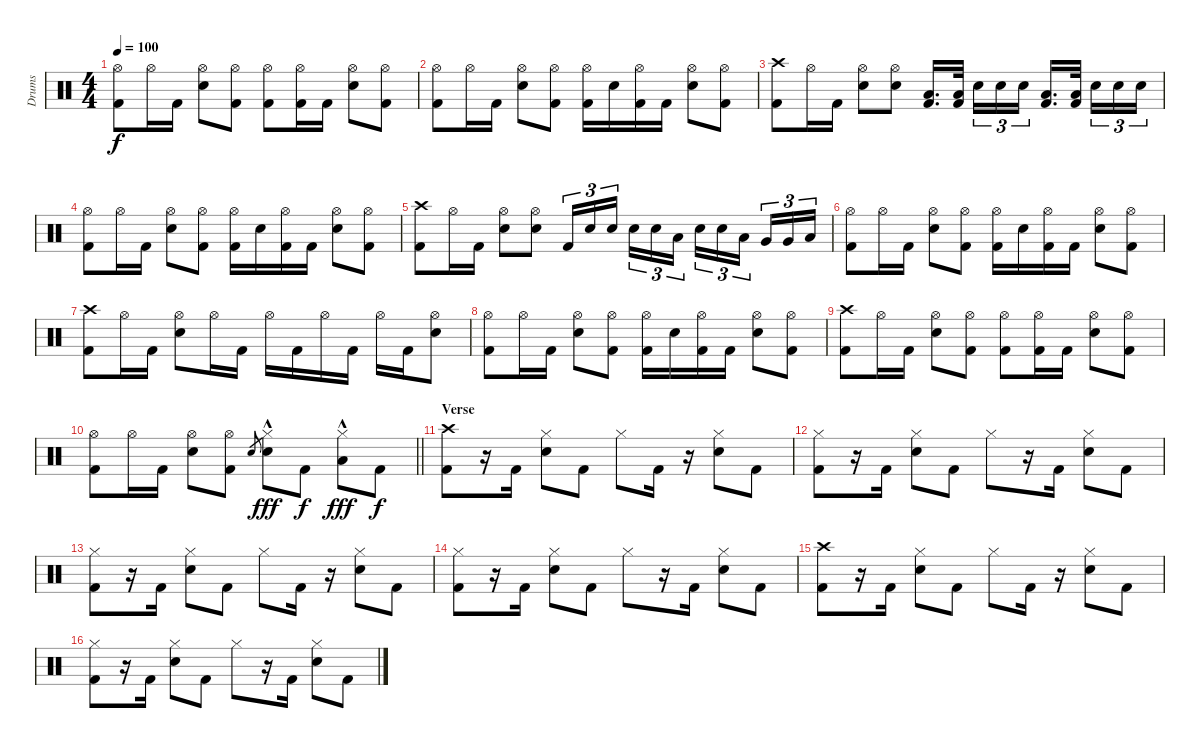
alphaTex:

\track ("Drums" "Drums") {instrument percussion}
\staff {score}
\articulation defaults
\ts (4 4)
\tempo 100
\clef neutral
\ks c
("Hi-Hat (open)" "Kick (hit) 2").8{dy f} "Hi-Hat (open)".16 "Kick (hit) 2".16 ("Hi-Hat (open)" "Snare (hit) 2").8 ("Hi-Hat (open)" "Kick (hit) 2").8 ("Hi-Hat (open)" "Kick (hit) 2").8 ("Hi-Hat (open)" "Kick (hit) 2").16 "Kick (hit) 2".16 ("Hi-Hat (open)" "Snare (hit) 2").8 ("Hi-Hat (open)" "Kick (hit) 2").8 |
("Hi-Hat (open)" "Kick (hit) 2").8 "Hi-Hat (open)".16 "Kick (hit) 2".16 ("Hi-Hat (open)" "Snare (hit) 2").8 ("Hi-Hat (open)" "Kick (hit) 2").8 ("Hi-Hat (open)" "Kick (hit) 2").16 "Snare (hit) 2".16 ("Hi-Hat (open)" "Kick (hit) 2").16 "Kick (hit) 2".16 ("Hi-Hat (open)" "Snare (hit) 2").8 ("Hi-Hat (open)" "Kick (hit) 2").8 |
("Crash high (hit)" "Kick (hit) 2").8 "Hi-Hat (open)".16 "Kick (hit) 2".16 ("Hi-Hat (open)" "Snare (hit) 2").8 ("Hi-Hat (open)" "Snare (hit) 2").8 ("Low Tom (hit)" "Kick (hit) 2").16{d} ("Low Tom (hit)" "Kick (hit) 2").32{beam splitsecondary} "Snare (hit) 2".16{tu (3 2)} "Snare (hit) 2".16{tu (3 2)} "Snare (hit) 2".16{tu (3 2)} ("Low Tom (hit)" "Kick (hit) 2").16{d} ("Low Tom (hit)" "Kick (hit) 2").32{beam splitsecondary} "Snare (hit) 2".16{tu (3 2)} "Snare (hit) 2".16{tu (3 2)} "Snare (hit) 2".16{tu (3 2)} |
("Hi-Hat (open)" "Kick (hit) 2").8 "Hi-Hat (open)".16 "Kick (hit) 2".16 ("Hi-Hat (open)" "Snare (hit) 2").8 ("Hi-Hat (open)" "Kick (hit) 2").8 ("Hi-Hat (open)" "Kick (hit) 2").16 "Snare (hit) 2".16 ("Hi-Hat (open)" "Kick (hit) 2").16 "Kick (hit) 2".16 ("Hi-Hat (open)" "Snare (hit) 2").8 ("Hi-Hat (open)" "Kick (hit) 2").8 |
("Crash high (hit)" "Kick (hit) 2").8 "Hi-Hat (open)".16 "Kick (hit) 2".16 ("Hi-Hat (open)" "Snare (hit) 2").8 ("Hi-Hat (open)" "Snare (hit) 2").8 "Kick (hit) 2".16{tu (3 2)} "Snare (hit) 2".16{tu (3 2)} "Snare (hit) 2".16{tu (3 2) beam splitsecondary} "Snare (hit) 2".16{tu (3 2)} "Snare (hit) 2".16{tu (3 2)} "Low Tom (hit)".16{tu (3 2)} "Snare (hit) 2".16{tu (3 2)} "Snare (hit) 2".16{tu (3 2)} "Low Tom (hit)".16{tu (3 2) beam splitsecondary} "Very Low Tom (hit)".16{tu (3 2)} "Very Low Tom (hit)".16{tu (3 2)} "Low Floor Tom (hit)".16{tu (3 2)} |
("Hi-Hat (open)" "Kick (hit) 2").8 "Hi-Hat (open)".16 "Kick (hit) 2".16 ("Hi-Hat (open)" "Snare (hit) 2").8 ("Hi-Hat (open)" "Kick (hit) 2").8 ("Hi-Hat (open)" "Kick (hit) 2").16 "Snare (hit) 2".16 ("Hi-Hat (open)" "Kick (hit) 2").16 "Kick (hit) 2".16 ("Hi-Hat (open)" "Snare (hit) 2").8 ("Hi-Hat (open)" "Kick (hit) 2").8 |
("Crash high (hit)" "Kick (hit) 2").8 "Hi-Hat (open)".16 "Kick (hit) 2".16 ("Hi-Hat (open)" "Snare (hit) 2").8 "Hi-Hat (open)".16 "Kick (hit) 2".16 "Hi-Hat (open)".16 "Kick (hit) 2".16 "Hi-Hat (open)".16 "Kick (hit) 2".16 "Hi-Hat (open)".16 "Kick (hit) 2".16 ("Hi-Hat (open)" "Snare (hit) 2").8 |
("Hi-Hat (open)" "Kick (hit) 2").8 "Hi-Hat (open)".16 "Kick (hit) 2".16 ("Hi-Hat (open)" "Snare (hit) 2").8 ("Hi-Hat (open)" "Kick (hit) 2").8 ("Hi-Hat (open)" "Kick (hit) 2").16 "Snare (hit) 2".16 ("Hi-Hat (open)" "Kick (hit) 2").16 "Kick (hit) 2".16 ("Hi-Hat (open)" "Snare (hit) 2").8 ("Hi-Hat (open)" "Kick (hit) 2").8 |
("Crash high (hit)" "Kick (hit) 2").8 "Hi-Hat (open)".16 "Kick (hit) 2".16 ("Hi-Hat (open)" "Snare (hit) 2").8 ("Hi-Hat (open)" "Kick (hit) 2").8 ("Hi-Hat (open)" "Kick (hit) 2").8 ("Hi-Hat (open)" "Kick (hit) 2").16 "Kick (hit) 2".16 ("Hi-Hat (open)" "Snare (hit) 2").8 ("Hi-Hat (open)" "Kick (hit) 2").8 |
\barLineRight lightlight
("Hi-Hat (open)" "Kick (hit) 2").8 "Hi-Hat (open)".16 "Kick (hit) 2".16 ("Hi-Hat (open)" "Snare (hit) 2").8 ("Hi-Hat (open)" "Kick (hit) 2").8 "Snare (hit) 2".8{gr} ("Hi-Hat (closed)" "Snare (hit) 2"{hac}).8{dy fff} "Kick (hit) 2".8{dy f} ("Hi-Hat (closed)" "Low Tom (hit)"{hac}).8{dy fff} "Kick (hit) 2".8{dy f} |
\section ("" "Verse")
("Crash high (hit)" "Kick (hit) 2").8 r.16 "Kick (hit) 2".16 ("Hi-Hat (closed)" "Snare (hit) 2").8 "Kick (hit) 2".8 "Hi-Hat (closed)".8 "Kick (hit) 2".16 r.16 ("Hi-Hat (closed)" "Snare (hit) 2").8 "Kick (hit) 2".8 |
("Hi-Hat (closed)" "Kick (hit) 2").8 r.16 "Kick (hit) 2".16 ("Hi-Hat (closed)" "Snare (hit) 2").8 "Kick (hit) 2".8 "Hi-Hat (closed)".8 r.16 "Kick (hit) 2".16 ("Hi-Hat (closed)" "Snare (hit) 2").8 "Kick (hit) 2".8 |
("Hi-Hat (closed)" "Kick (hit) 2").8 r.16 "Kick (hit) 2".16 ("Hi-Hat (closed)" "Snare (hit) 2").8 "Kick (hit) 2".8 "Hi-Hat (closed)".8 "Kick (hit) 2".16 r.16 ("Hi-Hat (closed)" "Snare (hit) 2").8 "Kick (hit) 2".8 |
("Hi-Hat (closed)" "Kick (hit) 2").8 r.16 "Kick (hit) 2".16 ("Hi-Hat (closed)" "Snare (hit) 2").8 "Kick (hit) 2".8 "Hi-Hat (closed)".8 r.16 "Kick (hit) 2".16 ("Hi-Hat (closed)" "Snare (hit) 2").8 "Kick (hit) 2".8 |
("Crash high (hit)" "Kick (hit) 2").8 r.16 "Kick (hit) 2".16 ("Hi-Hat (closed)" "Snare (hit) 2").8 "Kick (hit) 2".8 "Hi-Hat (closed)".8 "Kick (hit) 2".16 r.16 ("Hi-Hat (closed)" "Snare (hit) 2").8 "Kick (hit) 2".8 |
("Hi-Hat (closed)" "Kick (hit) 2").8 r.16 "Kick (hit) 2".16 ("Hi-Hat (closed)" "Snare (hit) 2").8 "Kick (hit) 2".8 "Hi-Hat (closed)".8 r.16 "Kick (hit) 2".16 ("Hi-Hat (closed)" "Snare (hit) 2").8 "Kick (hit) 2".8
